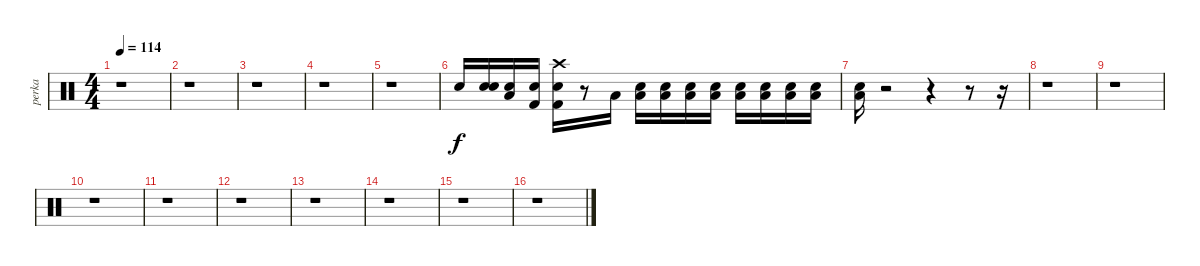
\track ("perka" "perka") {instrument percussion}
\staff {score}
\articulation defaults
\ts (4 4)
\tempo 114
\clef neutral
\ks c
r.1{dy f} |
r.1 |
r.1 |
r.1 |
r.1 |
"Snare (hit) 2".16 ("Snare (hit)" "Snare (hit) 2").16 ("Snare (hit)" "Low Floor Tom (hit)").16 ("Snare (hit)" "Kick (hit) 2").16 ("Snare (hit)" "Kick (hit) 2" "Crash high (hit)").16 r.8 "Low Tom (hit)".16 ("Snare (hit)" "Low Tom (hit)").16 ("Snare (hit)" "Low Tom (hit)").16 ("Snare (hit)" "Low Tom (hit)").16 ("Snare (hit)" "Low Tom (hit)").16 ("Snare (hit)" "Low Tom (hit)").16 ("Snare (hit)" "Low Floor Tom (hit)").16 ("Snare (hit)" "Low Floor Tom (hit)").16 ("Snare (hit)" "Low Floor Tom (hit)").16 |
("Snare (hit)" "Low Floor Tom (hit)").16 r.2 r.4 r.8 r.16 |
r.1 |
r.1 |
r.1 |
r.1 |
r.1 |
r.1 |
r.1 |
r.1 |
r.1
